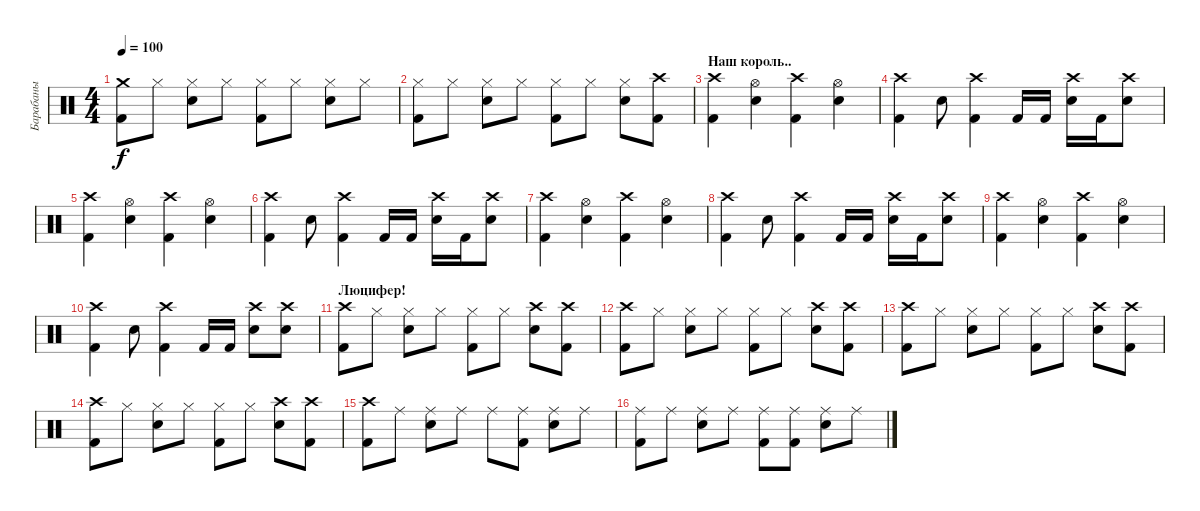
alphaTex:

\track ("Барабаны" "Барабаны") {instrument percussion}
\staff {score}
\articulation defaults
\ts (4 4)
\tempo 100
\clef neutral
\ks c
("Crash medium (hit)" "Kick (hit) 2").8{dy f} "Hi-Hat (closed)".8 ("Hi-Hat (closed)" "Snare (hit) 2").8 "Hi-Hat (closed)".8 ("Hi-Hat (closed)" "Kick (hit) 2").8 "Hi-Hat (closed)".8 ("Hi-Hat (closed)" "Snare (hit) 2").8 "Hi-Hat (closed)".8 |
("Hi-Hat (closed)" "Kick (hit) 2").8 "Hi-Hat (closed)".8 ("Hi-Hat (closed)" "Snare (hit) 2").8 "Hi-Hat (closed)".8 ("Hi-Hat (closed)" "Kick (hit) 2").8 "Hi-Hat (closed)".8 ("Hi-Hat (closed)" "Snare (hit) 2").8 ("Crash high (hit)" "Kick (hit) 2").8 |
\section ("" "Наш король..")
("Crash high (hit)" "Kick (hit) 2").4 ("Hi-Hat (open)" "Snare (hit) 2").4 ("Crash high (hit)" "Kick (hit) 2").4 ("Hi-Hat (open)" "Snare (hit) 2").4 |
("Crash high (hit)" "Kick (hit) 2").4 "Snare (hit) 2".8 ("Crash high (hit)" "Kick (hit) 2").4 "Kick (hit) 2".16 "Kick (hit) 2".16 ("Crash high (hit)" "Snare (hit) 2").16 "Kick (hit) 2".16 ("Crash high (hit)" "Snare (hit) 2").8 |
("Crash high (hit)" "Kick (hit) 2").4 ("Hi-Hat (open)" "Snare (hit) 2").4 ("Crash high (hit)" "Kick (hit) 2").4 ("Hi-Hat (open)" "Snare (hit) 2").4 |
("Crash high (hit)" "Kick (hit) 2").4 "Snare (hit) 2".8 ("Crash high (hit)" "Kick (hit) 2").4 "Kick (hit) 2".16 "Kick (hit) 2".16 ("Crash high (hit)" "Snare (hit) 2").16 "Kick (hit) 2".16 ("Crash high (hit)" "Snare (hit) 2").8 |
("Crash high (hit)" "Kick (hit) 2").4 ("Hi-Hat (open)" "Snare (hit) 2").4 ("Crash high (hit)" "Kick (hit) 2").4 ("Hi-Hat (open)" "Snare (hit) 2").4 |
("Crash high (hit)" "Kick (hit) 2").4 "Snare (hit) 2".8 ("Crash high (hit)" "Kick (hit) 2").4 "Kick (hit) 2".16 "Kick (hit) 2".16 ("Crash high (hit)" "Snare (hit) 2").16 "Kick (hit) 2".16 ("Crash high (hit)" "Snare (hit) 2").8 |
("Crash high (hit)" "Kick (hit) 2").4 ("Hi-Hat (open)" "Snare (hit) 2").4 ("Crash high (hit)" "Kick (hit) 2").4 ("Hi-Hat (open)" "Snare (hit) 2").4 |
("Crash high (hit)" "Kick (hit) 2").4 "Snare (hit) 2".8 ("Crash high (hit)" "Kick (hit) 2").4 "Kick (hit) 2".16 "Kick (hit) 2".16 ("Crash high (hit)" "Snare (hit) 2").8 ("Crash high (hit)" "Snare (hit) 2").8 |
\section ("" "Люцифер!")
("Crash high (hit)" "Kick (hit) 2").8 "Hi-Hat (closed)".8 ("Hi-Hat (closed)" "Snare (hit) 2").8 "Hi-Hat (closed)".8 ("Hi-Hat (closed)" "Kick (hit) 2").8 "Hi-Hat (closed)".8 ("Crash high (hit)" "Snare (hit) 2").8 ("Crash high (hit)" "Kick (hit) 2").8 |
("Crash high (hit)" "Kick (hit) 2").8 "Hi-Hat (closed)".8 ("Hi-Hat (closed)" "Snare (hit) 2").8 "Hi-Hat (closed)".8 ("Hi-Hat (closed)" "Kick (hit) 2").8 "Hi-Hat (closed)".8 ("Crash high (hit)" "Snare (hit) 2").8 ("Crash high (hit)" "Kick (hit) 2").8 |
("Crash high (hit)" "Kick (hit) 2").8 "Hi-Hat (closed)".8 ("Hi-Hat (closed)" "Snare (hit) 2").8 "Hi-Hat (closed)".8 ("Hi-Hat (closed)" "Kick (hit) 2").8 "Hi-Hat (closed)".8 ("Crash high (hit)" "Snare (hit) 2").8 ("Crash high (hit)" "Kick (hit) 2").8 |
("Crash high (hit)" "Kick (hit) 2").8 "Hi-Hat (closed)".8 ("Hi-Hat (closed)" "Snare (hit) 2").8 "Hi-Hat (closed)".8 ("Hi-Hat (closed)" "Kick (hit) 2").8 "Hi-Hat (closed)".8 ("Crash high (hit)" "Snare (hit) 2").8 ("Crash high (hit)" "Kick (hit) 2").8 |
("Crash high (hit)" "Kick (hit) 2").8 "Ride (middle)".8 ("Ride (middle)" "Snare (hit) 2").8 "Ride (middle)".8 "Ride (middle)".8 ("Ride (middle)" "Kick (hit) 2").8 ("Ride (middle)" "Snare (hit) 2").8 "Ride (middle)".8 |
("Ride (middle)" "Kick (hit) 2").8 "Ride (middle)".8 ("Ride (middle)" "Snare (hit) 2").8 "Ride (middle)".8 ("Ride (middle)" "Kick (hit) 2").8 ("Ride (middle)" "Kick (hit) 2").8 ("Ride (middle)" "Snare (hit) 2").8 "Ride (middle)".8
